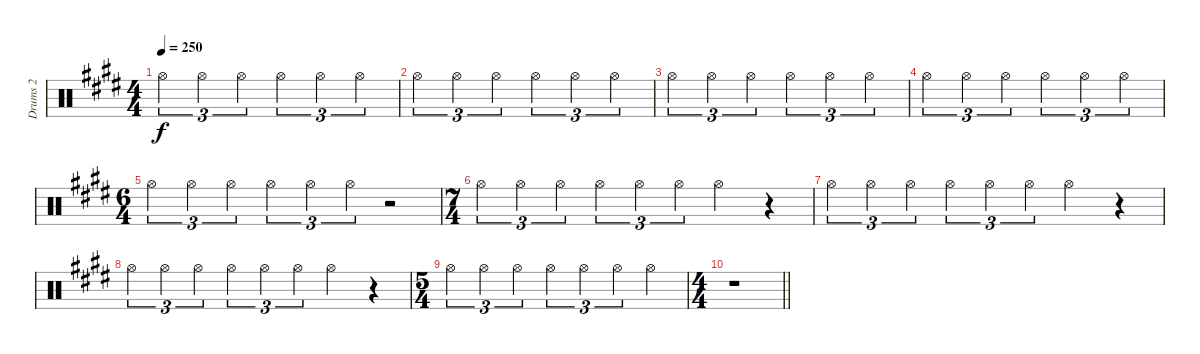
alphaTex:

\track ("Drums 2" "Drums 2") {instrument percussion}
\staff {score}
\articulation defaults
\ts (4 4)
\tempo 250
\clef neutral
\ks c#minor "Hi-Hat (open)".4{tu (3 2) dy f} "Hi-Hat (open)".4{tu (3 2)} "Hi-Hat (open)".4{tu (3 2)} "Hi-Hat (open)".4{tu (3 2)} "Hi-Hat (open)".4{tu (3 2)} "Hi-Hat (open)".4{tu (3 2)}
|
"Hi-Hat (open)".4{tu (3 2)} "Hi-Hat (open)".4{tu (3 2)} "Hi-Hat (open)".4{tu (3 2)} "Hi-Hat (open)".4{tu (3 2)} "Hi-Hat (open)".4{tu (3 2)} "Hi-Hat (open)".4{tu (3 2)} |
"Hi-Hat (open)".4{tu (3 2)} "Hi-Hat (open)".4{tu (3 2)} "Hi-Hat (open)".4{tu (3 2)} "Hi-Hat (open)".4{tu (3 2)} "Hi-Hat (open)".4{tu (3 2)} "Hi-Hat (open)".4{tu (3 2)} |
"Hi-Hat (open)".4{tu (3 2)} "Hi-Hat (open)".4{tu (3 2)} "Hi-Hat (open)".4{tu (3 2)} "Hi-Hat (open)".4{tu (3 2)} "Hi-Hat (open)".4{tu (3 2)} "Hi-Hat (open)".4{tu (3 2)} |
\ts (6 4)
"Hi-Hat (open)".4{tu (3 2)} "Hi-Hat (open)".4{tu (3 2)} "Hi-Hat (open)".4{tu (3 2)} "Hi-Hat (open)".4{tu (3 2)} "Hi-Hat (open)".4{tu (3 2)} "Hi-Hat (open)".4{tu (3 2)} r.2 |
\ts (7 4)
"Hi-Hat (open)".4{tu (3 2)} "Hi-Hat (open)".4{tu (3 2)} "Hi-Hat (open)".4{tu (3 2)} "Hi-Hat (open)".4{tu (3 2)} "Hi-Hat (open)".4{tu (3 2)} "Hi-Hat (open)".4{tu (3 2)} "Hi-Hat (open)".2 r.4 |
"Hi-Hat (open)".4{tu (3 2)} "Hi-Hat (open)".4{tu (3 2)} "Hi-Hat (open)".4{tu (3 2)} "Hi-Hat (open)".4{tu (3 2)} "Hi-Hat (open)".4{tu (3 2)} "Hi-Hat (open)".4{tu (3 2)} "Hi-Hat (open)".2 r.4 |
"Hi-Hat (open)".4{tu (3 2)} "Hi-Hat (open)".4{tu (3 2)} "Hi-Hat (open)".4{tu (3 2)} "Hi-Hat (open)".4{tu (3 2)} "Hi-Hat (open)".4{tu (3 2)} "Hi-Hat (open)".4{tu (3 2)} "Hi-Hat (open)".2 r.4 |
\ts (5 4)
"Hi-Hat (open)".4{tu (3 2)} "Hi-Hat (open)".4{tu (3 2)} "Hi-Hat (open)".4{tu (3 2)} "Hi-Hat (open)".4{tu (3 2)} "Hi-Hat (open)".4{tu (3 2)} "Hi-Hat (open)".4{tu (3 2)} "Hi-Hat (open)".4 |
\ts (4 4)
\barLineRight lightlight
r.1
